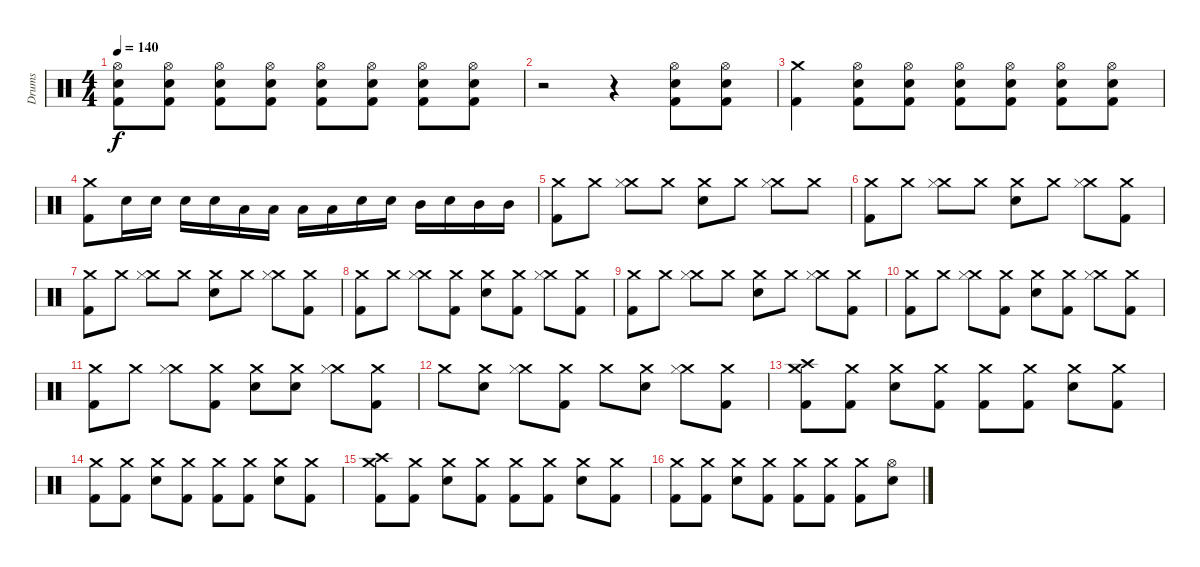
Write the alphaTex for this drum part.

\track ("Drums" "Drums") {instrument percussion}
\staff {score}
\articulation defaults
\ts (4 4)
\tempo 140
\clef neutral
\ks c
("Hi-Hat (open)" "Snare (hit) 2" "Kick (hit) 2").8{dy f} ("Hi-Hat (open)" "Snare (hit) 2" "Kick (hit) 2").8 ("Hi-Hat (open)" "Snare (hit) 2" "Kick (hit) 2").8 ("Hi-Hat (open)" "Snare (hit) 2" "Kick (hit) 2").8 ("Hi-Hat (open)" "Snare (hit) 2" "Kick (hit) 2").8 ("Hi-Hat (open)" "Snare (hit) 2" "Kick (hit) 2").8 ("Hi-Hat (open)" "Snare (hit) 2" "Kick (hit) 2").8 ("Hi-Hat (open)" "Snare (hit) 2" "Kick (hit) 2").8 |
r.2 r.4 ("Hi-Hat (open)" "Snare (hit) 2" "Kick (hit) 2").8 ("Hi-Hat (open)" "Snare (hit) 2" "Kick (hit) 2").8 |
("Crash medium (hit)" "Kick (hit) 2").4 ("Hi-Hat (open)" "Snare (hit) 2" "Kick (hit) 2").8 ("Hi-Hat (open)" "Snare (hit) 2" "Kick (hit) 2").8 ("Hi-Hat (open)" "Snare (hit) 2" "Kick (hit) 2").8 ("Hi-Hat (open)" "Snare (hit) 2" "Kick (hit) 2").8 ("Hi-Hat (open)" "Snare (hit) 2" "Kick (hit) 2").8 ("Hi-Hat (open)" "Snare (hit) 2" "Kick (hit) 2").8 |
("Crash medium (hit)" "Kick (hit) 2").8 "Snare (hit) 2".16 "Snare (hit) 2".16 "Snare (hit) 2".16 "Snare (hit) 2".16 "Low Tom (hit)".16 "Low Tom (hit)".16 "Low Tom (hit)".16 "Low Tom (hit)".16 "Snare (hit) 2".16 "Snare (hit) 2".16 "Mid Tom (hit)".16 "Snare (hit) 2".16 "Mid Tom (hit)".16 "Mid Tom (hit)".16 |
("Crash medium (hit)" "Kick (hit) 2").8 "Crash medium (hit)".8 ("Crash medium (hit)" "Hi-Hat (closed)").8 "Crash medium (hit)".8 ("Crash medium (hit)" "Snare (hit) 2").8 "Crash medium (hit)".8 ("Crash medium (hit)" "Hi-Hat (closed)").8 "Crash medium (hit)".8 |
("Crash medium (hit)" "Kick (hit) 2").8 "Crash medium (hit)".8 ("Crash medium (hit)" "Hi-Hat (closed)").8 "Crash medium (hit)".8 ("Crash medium (hit)" "Snare (hit) 2").8 "Crash medium (hit)".8 ("Crash medium (hit)" "Hi-Hat (closed)").8 ("Crash medium (hit)" "Kick (hit) 2").8 |
("Crash medium (hit)" "Kick (hit) 2").8 "Crash medium (hit)".8 ("Crash medium (hit)" "Hi-Hat (closed)").8 "Crash medium (hit)".8 ("Crash medium (hit)" "Snare (hit) 2").8 "Crash medium (hit)".8 ("Crash medium (hit)" "Hi-Hat (closed)").8 ("Crash medium (hit)" "Kick (hit) 2").8 |
("Crash medium (hit)" "Kick (hit) 2").8 "Crash medium (hit)".8 ("Crash medium (hit)" "Hi-Hat (closed)").8 ("Crash medium (hit)" "Kick (hit) 2").8 ("Crash medium (hit)" "Snare (hit) 2").8 ("Crash medium (hit)" "Kick (hit) 2").8 ("Crash medium (hit)" "Hi-Hat (closed)").8 ("Crash medium (hit)" "Kick (hit) 2").8 |
("Crash medium (hit)" "Kick (hit) 2").8 "Crash medium (hit)".8 ("Crash medium (hit)" "Hi-Hat (closed)").8 "Crash medium (hit)".8 ("Crash medium (hit)" "Snare (hit) 2").8 "Crash medium (hit)".8 ("Crash medium (hit)" "Hi-Hat (closed)").8 ("Crash medium (hit)" "Kick (hit) 2").8 |
("Crash medium (hit)" "Kick (hit) 2").8 "Crash medium (hit)".8 ("Crash medium (hit)" "Hi-Hat (closed)").8 ("Crash medium (hit)" "Kick (hit) 2").8 ("Crash medium (hit)" "Snare (hit) 2").8 ("Crash medium (hit)" "Kick (hit) 2").8 ("Crash medium (hit)" "Hi-Hat (closed)").8 ("Crash medium (hit)" "Kick (hit) 2").8 |
("Crash medium (hit)" "Kick (hit) 2").8 "Crash medium (hit)".8 ("Crash medium (hit)" "Hi-Hat (closed)").8 ("Crash medium (hit)" "Kick (hit) 2").8 ("Crash medium (hit)" "Snare (hit) 2").8 ("Crash medium (hit)" "Snare (hit) 2").8 ("Crash medium (hit)" "Hi-Hat (closed)").8 ("Crash medium (hit)" "Kick (hit) 2").8 |
"Crash medium (hit)".8 ("Crash medium (hit)" "Snare (hit) 2").8 ("Crash medium (hit)" "Hi-Hat (closed)").8 ("Crash medium (hit)" "Kick (hit) 2").8 "Crash medium (hit)".8 ("Crash medium (hit)" "Snare (hit) 2").8 ("Crash medium (hit)" "Hi-Hat (closed)").8 ("Crash medium (hit)" "Kick (hit) 2").8 |
("Crash high (hit)" "Crash medium (hit)" "Kick (hit) 2").8 ("Crash medium (hit)" "Kick (hit) 2").8 ("Crash medium (hit)" "Snare (hit) 2").8 ("Crash medium (hit)" "Kick (hit) 2").8 ("Crash medium (hit)" "Kick (hit) 2").8 ("Crash medium (hit)" "Kick (hit) 2").8 ("Crash medium (hit)" "Snare (hit) 2").8 ("Crash medium (hit)" "Kick (hit) 2").8 |
("Crash medium (hit)" "Kick (hit) 2").8 ("Crash medium (hit)" "Kick (hit) 2").8 ("Crash medium (hit)" "Snare (hit) 2").8 ("Crash medium (hit)" "Kick (hit) 2").8 ("Crash medium (hit)" "Kick (hit) 2").8 ("Crash medium (hit)" "Kick (hit) 2").8 ("Crash medium (hit)" "Snare (hit) 2").8 ("Crash medium (hit)" "Kick (hit) 2").8 |
("Crash high (hit)" "Crash medium (hit)" "Kick (hit) 2").8 ("Crash medium (hit)" "Kick (hit) 2").8 ("Crash medium (hit)" "Snare (hit) 2").8 ("Crash medium (hit)" "Kick (hit) 2").8 ("Crash medium (hit)" "Kick (hit) 2").8 ("Crash medium (hit)" "Kick (hit) 2").8 ("Crash medium (hit)" "Snare (hit) 2").8 ("Crash medium (hit)" "Kick (hit) 2").8 |
("Crash medium (hit)" "Kick (hit) 2").8 ("Crash medium (hit)" "Kick (hit) 2").8 ("Crash medium (hit)" "Snare (hit) 2").8 ("Crash medium (hit)" "Kick (hit) 2").8 ("Crash medium (hit)" "Kick (hit) 2").8 ("Crash medium (hit)" "Kick (hit) 2").8 ("Crash medium (hit)" "Kick (hit) 2").8 ("Hi-Hat (open)" "Snare (hit) 2").8
